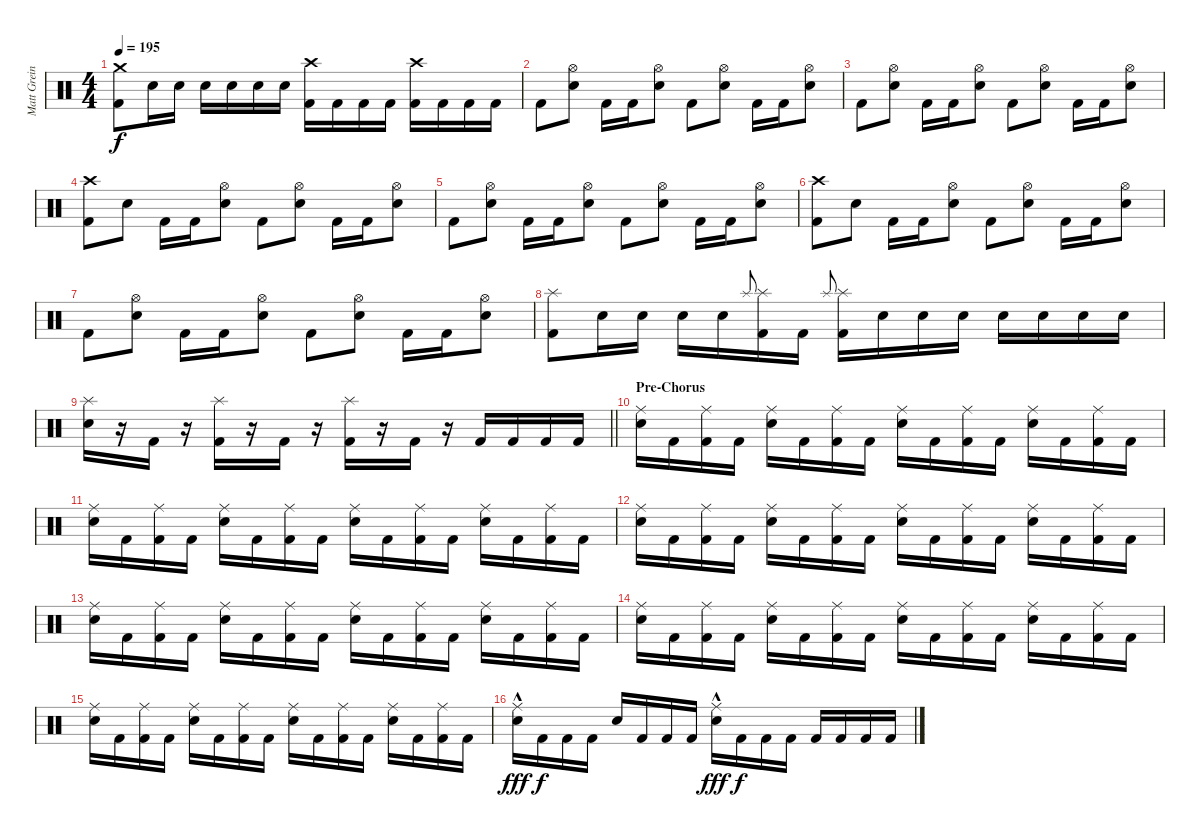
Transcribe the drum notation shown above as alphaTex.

\track ("Matt Greiner" "Matt Grein") {instrument percussion}
\staff {score}
\articulation defaults
\ts (4 4)
\tempo 195
\clef neutral
\ks c
("Crash medium (hit)" "Kick (hit) 2").8{dy f} "Electric Snare (hit)".16 "Electric Snare (hit)".16 "Electric Snare (hit)".16 "Electric Snare (hit)".16 "Electric Snare (hit)".16 "Electric Snare (hit)".16 ("Crash high (hit)" "Kick (hit) 2").16 "Kick (hit) 2".16 "Kick (hit) 2".16 "Kick (hit) 2".16 ("Crash high (hit)" "Kick (hit) 2").16 "Kick (hit) 2".16 "Kick (hit) 2".16 "Kick (hit) 2".16 |
"Kick (hit) 2".8 ("Hi-Hat (open)" "Electric Snare (hit)").8 "Kick (hit) 2".16 "Kick (hit) 2".16 ("Hi-Hat (open)" "Electric Snare (hit)").8 "Kick (hit) 2".8 ("Hi-Hat (open)" "Electric Snare (hit)").8 "Kick (hit) 2".16 "Kick (hit) 2".16 ("Hi-Hat (open)" "Electric Snare (hit)").8 |
"Kick (hit) 2".8 ("Hi-Hat (open)" "Electric Snare (hit)").8 "Kick (hit) 2".16 "Kick (hit) 2".16 ("Hi-Hat (open)" "Electric Snare (hit)").8 "Kick (hit) 2".8 ("Hi-Hat (open)" "Electric Snare (hit)").8 "Kick (hit) 2".16 "Kick (hit) 2".16 ("Hi-Hat (open)" "Electric Snare (hit)").8 |
("Crash high (hit)" "Kick (hit) 2").8 "Electric Snare (hit)".8 "Kick (hit) 2".16 "Kick (hit) 2".16 ("Hi-Hat (open)" "Electric Snare (hit)").8 "Kick (hit) 2".8 ("Hi-Hat (open)" "Electric Snare (hit)").8 "Kick (hit) 2".16 "Kick (hit) 2".16 ("Hi-Hat (open)" "Electric Snare (hit)").8 |
"Kick (hit) 2".8 ("Hi-Hat (open)" "Electric Snare (hit)").8 "Kick (hit) 2".16 "Kick (hit) 2".16 ("Hi-Hat (open)" "Electric Snare (hit)").8 "Kick (hit) 2".8 ("Hi-Hat (open)" "Electric Snare (hit)").8 "Kick (hit) 2".16 "Kick (hit) 2".16 ("Hi-Hat (open)" "Electric Snare (hit)").8 |
("Crash high (hit)" "Kick (hit) 2").8 "Electric Snare (hit)".8 "Kick (hit) 2".16 "Kick (hit) 2".16 ("Hi-Hat (open)" "Electric Snare (hit)").8 "Kick (hit) 2".8 ("Hi-Hat (open)" "Electric Snare (hit)").8 "Kick (hit) 2".16 "Kick (hit) 2".16 ("Hi-Hat (open)" "Electric Snare (hit)").8 |
"Kick (hit) 2".8 ("Hi-Hat (open)" "Electric Snare (hit)").8 "Kick (hit) 2".16 "Kick (hit) 2".16 ("Hi-Hat (open)" "Electric Snare (hit)").8 "Kick (hit) 2".8 ("Hi-Hat (open)" "Electric Snare (hit)").8 "Kick (hit) 2".16 "Kick (hit) 2".16 ("Hi-Hat (open)" "Electric Snare (hit)").8 |
("Splash (hit)" "Kick (hit) 2").8 "Electric Snare (hit)".16 "Electric Snare (hit)".16 "Electric Snare (hit)".16 "Electric Snare (hit)".16 "Splash (hit)".8{gr onbeat} ("Splash (hit)" "Kick (hit) 2").16 "Kick (hit) 2".16 "Splash (hit)".8{gr onbeat} ("Splash (hit)" "Kick (hit) 2").16 "Electric Snare (hit)".16 "Electric Snare (hit)".16 "Electric Snare (hit)".16 "Electric Snare (hit)".16 "Electric Snare (hit)".16 "Electric Snare (hit)".16 "Electric Snare (hit)".16 |
\barLineRight lightlight
("Splash (hit)" "Electric Snare (hit)").16 r.16 "Kick (hit) 2".16 r.16 ("Splash (hit)" "Kick (hit) 2").16 r.16 "Kick (hit) 2".16 r.16 ("Splash (hit)" "Kick (hit) 2").16 r.16 "Kick (hit) 2".16 r.16 "Kick (hit) 2".16 "Kick (hit) 2".16 "Kick (hit) 2".16 "Kick (hit) 2".16 |
\section ("" "Pre-Chorus")
("Ride (middle)" "Electric Snare (hit)").16 "Kick (hit) 2".16 ("Ride (middle)" "Kick (hit) 2").16 "Kick (hit) 2".16 ("Ride (middle)" "Electric Snare (hit)").16 "Kick (hit) 2".16 ("Ride (middle)" "Kick (hit) 2").16 "Kick (hit) 2".16 ("Ride (middle)" "Electric Snare (hit)").16 "Kick (hit) 2".16 ("Ride (middle)" "Kick (hit) 2").16 "Kick (hit) 2".16 ("Ride (middle)" "Electric Snare (hit)").16 "Kick (hit) 2".16 ("Ride (middle)" "Kick (hit) 2").16 "Kick (hit) 2".16 |
("Ride (middle)" "Electric Snare (hit)").16 "Kick (hit) 2".16 ("Ride (middle)" "Kick (hit) 2").16 "Kick (hit) 2".16 ("Ride (middle)" "Electric Snare (hit)").16 "Kick (hit) 2".16 ("Ride (middle)" "Kick (hit) 2").16 "Kick (hit) 2".16 ("Ride (middle)" "Electric Snare (hit)").16 "Kick (hit) 2".16 ("Ride (middle)" "Kick (hit) 2").16 "Kick (hit) 2".16 ("Ride (middle)" "Electric Snare (hit)").16 "Kick (hit) 2".16 ("Ride (middle)" "Kick (hit) 2").16 "Kick (hit) 2".16 |
("Ride (middle)" "Electric Snare (hit)").16 "Kick (hit) 2".16 ("Ride (middle)" "Kick (hit) 2").16 "Kick (hit) 2".16 ("Ride (middle)" "Electric Snare (hit)").16 "Kick (hit) 2".16 ("Ride (middle)" "Kick (hit) 2").16 "Kick (hit) 2".16 ("Ride (middle)" "Electric Snare (hit)").16 "Kick (hit) 2".16 ("Ride (middle)" "Kick (hit) 2").16 "Kick (hit) 2".16 ("Ride (middle)" "Electric Snare (hit)").16 "Kick (hit) 2".16 ("Ride (middle)" "Kick (hit) 2").16 "Kick (hit) 2".16 |
("Ride (middle)" "Electric Snare (hit)").16 "Kick (hit) 2".16 ("Ride (middle)" "Kick (hit) 2").16 "Kick (hit) 2".16 ("Ride (middle)" "Electric Snare (hit)").16 "Kick (hit) 2".16 ("Ride (middle)" "Kick (hit) 2").16 "Kick (hit) 2".16 ("Ride (middle)" "Electric Snare (hit)").16 "Kick (hit) 2".16 ("Ride (middle)" "Kick (hit) 2").16 "Kick (hit) 2".16 ("Ride (middle)" "Electric Snare (hit)").16 "Kick (hit) 2".16 ("Ride (middle)" "Kick (hit) 2").16 "Kick (hit) 2".16 |
("Ride (middle)" "Electric Snare (hit)").16 "Kick (hit) 2".16 ("Ride (middle)" "Kick (hit) 2").16 "Kick (hit) 2".16 ("Ride (middle)" "Electric Snare (hit)").16 "Kick (hit) 2".16 ("Ride (middle)" "Kick (hit) 2").16 "Kick (hit) 2".16 ("Ride (middle)" "Electric Snare (hit)").16 "Kick (hit) 2".16 ("Ride (middle)" "Kick (hit) 2").16 "Kick (hit) 2".16 ("Ride (middle)" "Electric Snare (hit)").16 "Kick (hit) 2".16 ("Ride (middle)" "Kick (hit) 2").16 "Kick (hit) 2".16 |
("Ride (middle)" "Electric Snare (hit)").16 "Kick (hit) 2".16 ("Ride (middle)" "Kick (hit) 2").16 "Kick (hit) 2".16 ("Ride (middle)" "Electric Snare (hit)").16 "Kick (hit) 2".16 ("Ride (middle)" "Kick (hit) 2").16 "Kick (hit) 2".16 ("Ride (middle)" "Electric Snare (hit)").16 "Kick (hit) 2".16 ("Ride (middle)" "Kick (hit) 2").16 "Kick (hit) 2".16 ("Ride (middle)" "Electric Snare (hit)").16 "Kick (hit) 2".16 ("Ride (middle)" "Kick (hit) 2").16 "Kick (hit) 2".16 |
("Ride (middle)"{hac} "Electric Snare (hit)").16{dy fff} "Kick (hit) 2".16{dy f} "Kick (hit) 2".16 "Kick (hit) 2".16 "Electric Snare (hit)".16 "Kick (hit) 2".16 "Kick (hit) 2".16 "Kick (hit) 2".16 ("Ride (middle)"{hac} "Electric Snare (hit)").16{dy fff} "Kick (hit) 2".16{dy f} "Kick (hit) 2".16 "Kick (hit) 2".16 "Kick (hit) 2".16 "Kick (hit) 2".16 "Kick (hit) 2".16 "Kick (hit) 2".16
